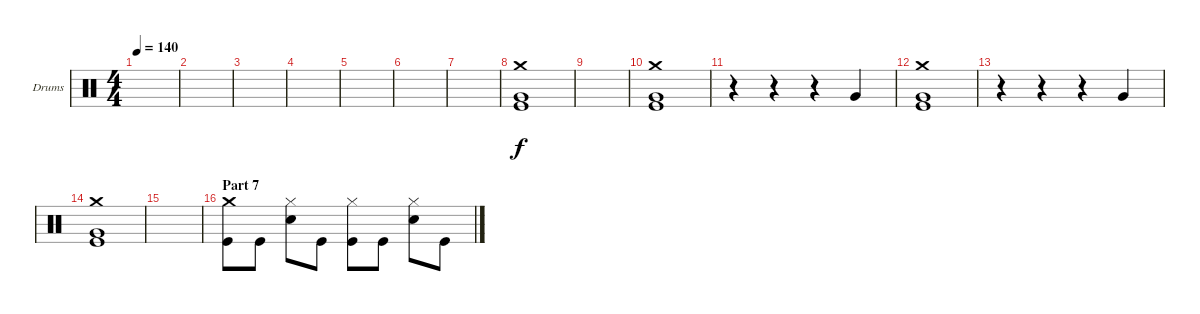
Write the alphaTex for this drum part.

\defaultSystemsLayout 4
\bracketExtendMode groupsimilarinstruments
\firstSystemTrackNameOrientation horizontal
\otherSystemsTrackNameOrientation horizontal
\track ("Drumkit" "Drums") {instrument percussion}
\staff {score}
\articulation defaults
\ts (4 4)
\tempo 140
\clef neutral
\ks aminor
|
|
|
|
|
|
|
("Kick (hit)" "Very Low Tom (hit)" "Crash medium (hit)").1 |
|
("Kick (hit)" "Very Low Tom (hit)" "Crash medium (hit)").1 |
r.4 r.4 r.4 "Very Low Tom (hit)".4 |
("Kick (hit)" "Very Low Tom (hit)" "Crash medium (hit)").1 |
r.4 r.4 r.4 "Very Low Tom (hit)".4 |
("Kick (hit)" "Very Low Tom (hit)" "Crash medium (hit)").1 |
|
\section ("" "Part 7")
("Kick (hit)" "Crash medium (hit)").8{dy f} "Kick (hit)".8 ("Snare (hit) 2" "Hi-Hat (closed)").8 "Kick (hit)".8 ("Kick (hit)" "Hi-Hat (closed)").8 "Kick (hit)".8 ("Snare (hit) 2" "Hi-Hat (closed)").8 "Kick (hit)".8
